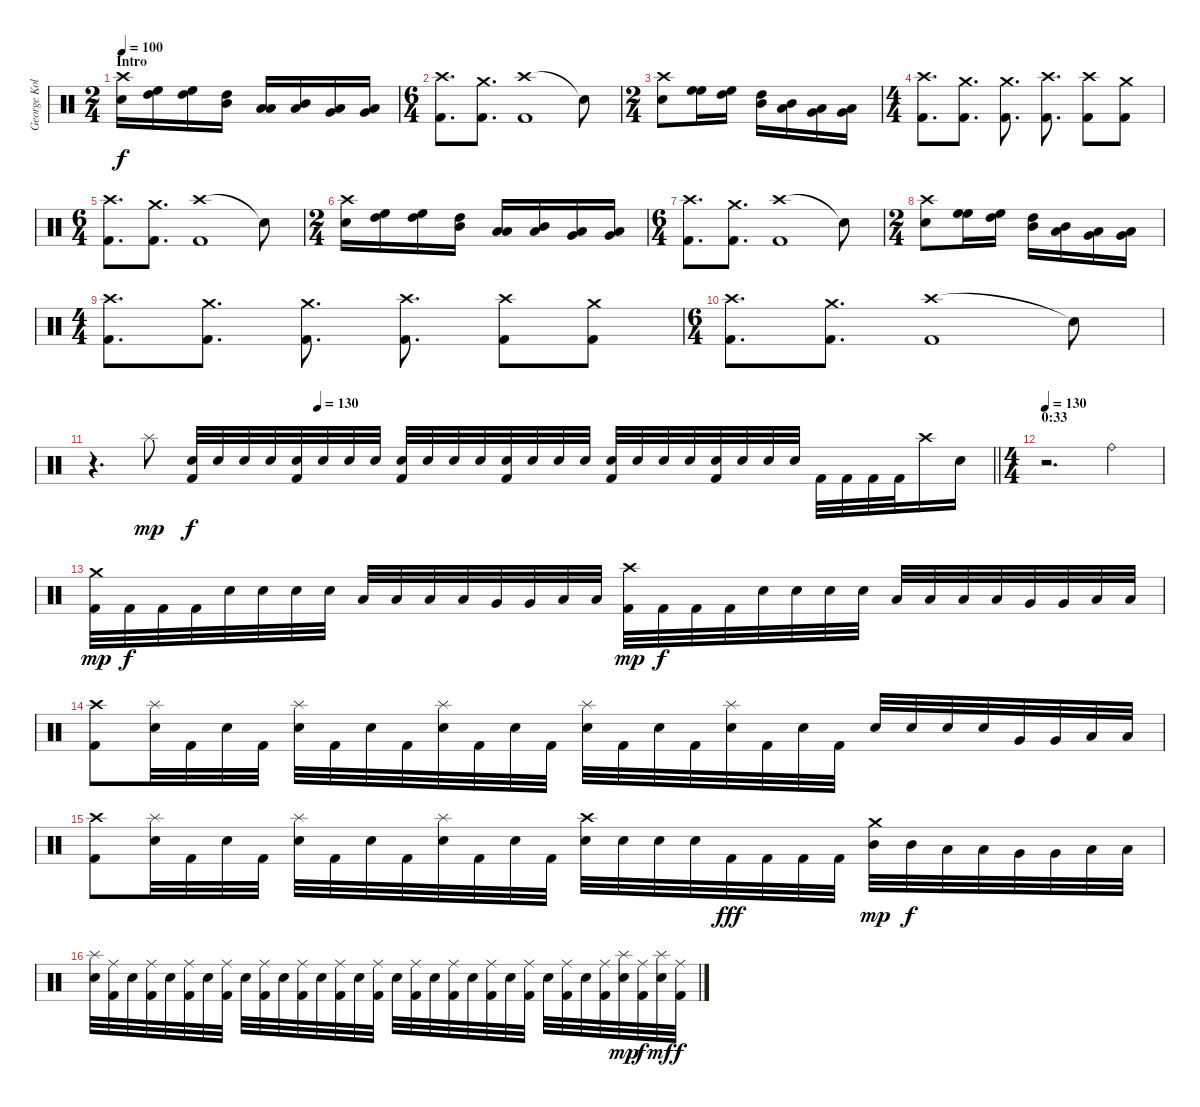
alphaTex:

\track ("George Kollias" "George Kol") {instrument percussion}
\staff {score}
\articulation defaults
\ts (2 4)
\section ("" "Intro")
\tempo 100
\clef neutral
\ks c
("Crash high (hit)" "Electric Snare (hit)").16{dy f} ("High Tom (hit)" "High Floor Tom (hit)").16 ("High Tom (hit)" "High Floor Tom (hit)").16 ("Mid Tom (hit)" "High Tom (hit)").16 ("Low Tom (hit)" "Low Tom (hit)").16 ("Low Tom (hit)" "Mid Tom (hit)").16 ("Very Low Tom (hit)" "Low Tom (hit)").16 ("Very Low Tom (hit)" "Low Floor Tom (hit)").16 |
\ts (6 4)
("Crash high (hit)" "Kick (hit) 2").8{d} ("Crash medium (hit)" "Kick (hit) 2").8{d} ("Crash high (hit)" "Kick (hit) 2").1 "Snare (hit)"{t}.8 |
\ts (2 4)
("Crash high (hit)" "Electric Snare (hit)").8 ("High Floor Tom (hit)" "High Floor Tom (hit)").16 ("High Tom (hit)" "High Floor Tom (hit)").16 ("Mid Tom (hit)" "High Tom (hit)").16 ("Low Tom (hit)" "Mid Tom (hit)").16 ("Very Low Tom (hit)" "Low Tom (hit)").16 ("Low Floor Tom (hit)" "Very Low Tom (hit)").16 |
\ts (4 4)
("Crash high (hit)" "Kick (hit) 2").8{d} ("Crash medium (hit)" "Kick (hit) 2").8{d} ("Crash medium (hit)" "Kick (hit) 2").8{d} ("Crash high (hit)" "Kick (hit) 2").8{d} ("Crash high (hit)" "Kick (hit) 2").8 ("Crash medium (hit)" "Kick (hit) 2").8 |
\ts (6 4)
("Crash high (hit)" "Kick (hit) 2").8{d} ("Crash medium (hit)" "Kick (hit) 2").8{d} ("Crash high (hit)" "Kick (hit) 2").1 "Snare (hit)"{t}.8 |
\ts (2 4)
("Crash high (hit)" "Electric Snare (hit)").16 ("High Tom (hit)" "High Floor Tom (hit)").16 ("High Tom (hit)" "High Floor Tom (hit)").16 ("Mid Tom (hit)" "High Tom (hit)").16 ("Low Tom (hit)" "Low Tom (hit)").16 ("Low Tom (hit)" "Mid Tom (hit)").16 ("Very Low Tom (hit)" "Low Tom (hit)").16 ("Very Low Tom (hit)" "Low Floor Tom (hit)").16 |
\ts (6 4)
("Crash high (hit)" "Kick (hit) 2").8{d} ("Crash medium (hit)" "Kick (hit) 2").8{d} ("Crash high (hit)" "Kick (hit) 2").1 "Snare (hit)"{t}.8 |
\ts (2 4)
("Crash high (hit)" "Electric Snare (hit)").8 ("High Floor Tom (hit)" "High Floor Tom (hit)").16 ("High Tom (hit)" "High Floor Tom (hit)").16 ("Mid Tom (hit)" "High Tom (hit)").16 ("Low Tom (hit)" "Mid Tom (hit)").16 ("Very Low Tom (hit)" "Low Tom (hit)").16 ("Low Floor Tom (hit)" "Very Low Tom (hit)").16 |
\ts (4 4)
("Crash high (hit)" "Kick (hit) 2").8{d} ("Crash medium (hit)" "Kick (hit) 2").8{d} ("Crash medium (hit)" "Kick (hit) 2").8{d} ("Crash high (hit)" "Kick (hit) 2").8{d} ("Crash high (hit)" "Kick (hit) 2").8 ("Crash medium (hit)" "Kick (hit) 2").8 |
\ts (6 4)
("Crash high (hit)" "Kick (hit) 2").8{d} ("Crash medium (hit)" "Kick (hit) 2").8{d} ("Crash high (hit)" "Kick (hit) 2").1 "Snare (hit)"{t}.8 |
\tempo (130 0.25)
\barLineRight lightlight
r.4{d} "Splash (hit)".8{dy mp} ("Electric Snare (hit)" "Kick (hit) 2").32{dy f} "Electric Snare (hit)".32 "Electric Snare (hit)".32 "Electric Snare (hit)".32 ("Electric Snare (hit)" "Kick (hit) 2").32 "Electric Snare (hit)".32 "Electric Snare (hit)".32 "Electric Snare (hit)".32 ("Electric Snare (hit)" "Kick (hit) 2").32 "Electric Snare (hit)".32 "Electric Snare (hit)".32 "Electric Snare (hit)".32 ("Electric Snare (hit)" "Kick (hit) 2").32 "Electric Snare (hit)".32 "Electric Snare (hit)".32 "Electric Snare (hit)".32 ("Electric Snare (hit)" "Kick (hit) 2").32 "Electric Snare (hit)".32 "Electric Snare (hit)".32 "Electric Snare (hit)".32 ("Electric Snare (hit)" "Kick (hit) 2").32 "Electric Snare (hit)".32 "Electric Snare (hit)".32 "Electric Snare (hit)".32 "Kick (hit) 2".32 "Kick (hit) 2".32 "Kick (hit) 2".32 "Kick (hit) 2".32 "Crash high (hit)".16 "Electric Snare (hit)".16 |
\ts (4 4)
\section ("" "0:33")
\tempo 130
r.2{d} "Ride (bell)".4 |
("Crash medium (hit)" "Kick (hit) 2").32{dy mp} "Kick (hit) 2".32{dy f} "Kick (hit) 2".32 "Kick (hit) 2".32 "Electric Snare (hit)".32 "Electric Snare (hit)".32 "Electric Snare (hit)".32 "Electric Snare (hit)".32 "Low Tom (hit)".32 "Low Tom (hit)".32 "Low Tom (hit)".32 "Low Tom (hit)".32 "Very Low Tom (hit)".32 "Very Low Tom (hit)".32 "Low Floor Tom (hit)".32 "Low Floor Tom (hit)".32 ("Crash high (hit)" "Kick (hit) 2").32{dy mp} "Kick (hit) 2".32{dy f} "Kick (hit) 2".32 "Kick (hit) 2".32 "Electric Snare (hit)".32 "Electric Snare (hit)".32 "Electric Snare (hit)".32 "Electric Snare (hit)".32 "Low Tom (hit)".32 "Low Tom (hit)".32 "Low Tom (hit)".32 "Low Tom (hit)".32 "Very Low Tom (hit)".32 "Very Low Tom (hit)".32 "Low Floor Tom (hit)".32 "Low Floor Tom (hit)".32 |
("Crash high (hit)" "Kick (hit) 2").8 ("Splash (hit)" "Electric Snare (hit)").32 "Kick (hit) 2".32 "Electric Snare (hit)".32 "Kick (hit) 2".32 ("Splash (hit)" "Electric Snare (hit)").32 "Kick (hit) 2".32 "Electric Snare (hit)".32 "Kick (hit) 2".32 ("Splash (hit)" "Electric Snare (hit)").32 "Kick (hit) 2".32 "Electric Snare (hit)".32 "Kick (hit) 2".32 ("Splash (hit)" "Electric Snare (hit)").32 "Kick (hit) 2".32 "Electric Snare (hit)".32 "Kick (hit) 2".32 ("Splash (hit)" "Electric Snare (hit)").32 "Kick (hit) 2".32 "Electric Snare (hit)".32 "Kick (hit) 2".32 "Electric Snare (hit)".32 "Electric Snare (hit)".32 "Electric Snare (hit)".32 "Electric Snare (hit)".32 "Very Low Tom (hit)".32 "Very Low Tom (hit)".32 "Low Floor Tom (hit)".32 "Low Floor Tom (hit)".32 |
("Crash high (hit)" "Kick (hit) 2").8 ("Splash (hit)" "Electric Snare (hit)").32 "Kick (hit) 2".32 "Electric Snare (hit)".32 "Kick (hit) 2".32 ("Splash (hit)" "Electric Snare (hit)").32 "Kick (hit) 2".32 "Electric Snare (hit)".32 "Kick (hit) 2".32 ("Splash (hit)" "Electric Snare (hit)").32 "Kick (hit) 2".32 "Electric Snare (hit)".32 "Kick (hit) 2".32 ("Crash high (hit)" "Electric Snare (hit)").32 "Electric Snare (hit)".32 "Electric Snare (hit)".32 "Electric Snare (hit)".32 "Kick (hit) 2".32{dy fff} "Kick (hit) 2".32 "Kick (hit) 2".32 "Kick (hit) 2".32 ("Crash medium (hit)" "Mid Tom (hit)").32{dy mp} "Mid Tom (hit)".32{dy f} "Low Tom (hit)".32 "Low Tom (hit)".32 "Very Low Tom (hit)".32 "Very Low Tom (hit)".32 "Low Floor Tom (hit)".32 "Low Floor Tom (hit)".32 |
("Splash (hit)" "Electric Snare (hit)").32 ("Ride (middle)" "Kick (hit) 2").32 "Electric Snare (hit)".32 ("Ride (middle)" "Kick (hit) 2").32 "Electric Snare (hit)".32 ("Ride (middle)" "Kick (hit) 2").32 "Electric Snare (hit)".32 ("Ride (middle)" "Kick (hit) 2").32 "Electric Snare (hit)".32 ("Ride (middle)" "Kick (hit) 2").32 "Electric Snare (hit)".32 ("Ride (middle)" "Kick (hit) 2").32 "Electric Snare (hit)".32 ("Ride (middle)" "Kick (hit) 2").32 "Electric Snare (hit)".32 ("Ride (middle)" "Kick (hit) 2").32 "Electric Snare (hit)".32 ("Ride (middle)" "Kick (hit) 2").32 "Electric Snare (hit)".32 ("Ride (middle)" "Kick (hit) 2").32 "Electric Snare (hit)".32 ("Ride (middle)" "Kick (hit) 2").32 "Electric Snare (hit)".32 ("Ride (middle)" "Kick (hit) 2").32 "Electric Snare (hit)".32 ("Ride (middle)" "Kick (hit) 2").32 "Electric Snare (hit)".32 ("Ride (middle)" "Kick (hit) 2").32 ("Splash (hit)" "Electric Snare (hit)").32{dy mp} ("Ride (middle)" "Kick (hit) 2").32{dy f} ("Splash (hit)" "Electric Snare (hit)").32{dy mf} ("Ride (middle)" "Kick (hit) 2").32{dy f}
